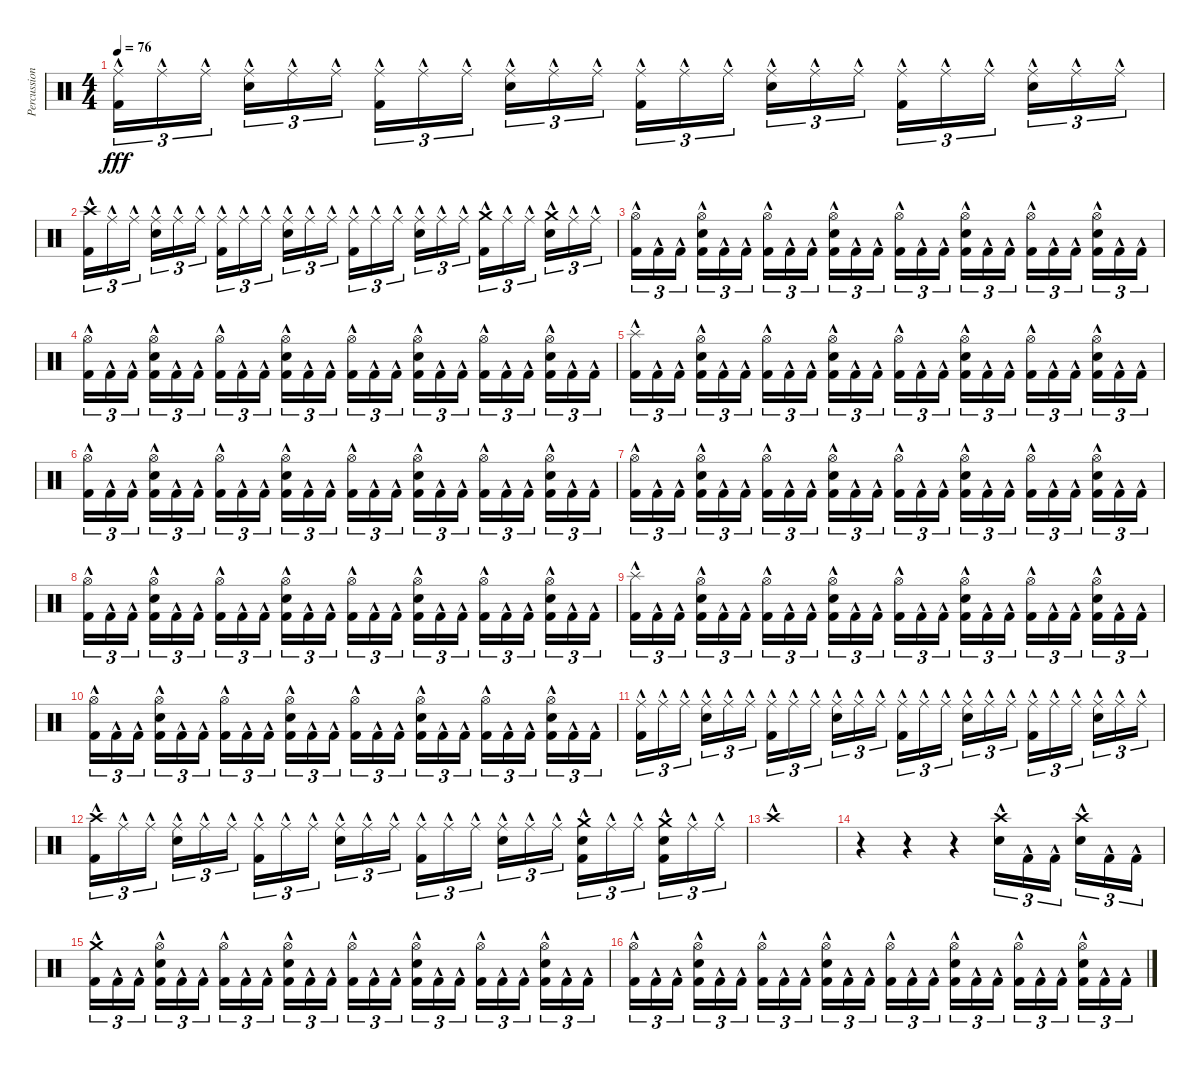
\track ("Percussion" "Percussion") {instrument percussion}
\staff {score}
\articulation defaults
\ts (4 4)
\tempo 76
\clef neutral
\ks c
("Ride (middle)"{hac} "Kick (hit) 2"{hac}).16{tu (3 2) dy fff} "Ride (middle)"{hac}.16{tu (3 2)} "Ride (middle)"{hac}.16{tu (3 2) beam splitsecondary} ("Ride (middle)"{hac} "Electric Snare (hit)"{hac}).16{tu (3 2)} "Ride (middle)"{hac}.16{tu (3 2)} "Ride (middle)"{hac}.16{tu (3 2)} ("Ride (middle)"{hac} "Kick (hit) 2"{hac}).16{tu (3 2)} "Ride (middle)"{hac}.16{tu (3 2)} "Ride (middle)"{hac}.16{tu (3 2) beam splitsecondary} ("Ride (middle)"{hac} "Electric Snare (hit)"{hac}).16{tu (3 2)} "Ride (middle)"{hac}.16{tu (3 2)} "Ride (middle)"{hac}.16{tu (3 2)} ("Ride (middle)"{hac} "Kick (hit) 2"{hac}).16{tu (3 2)} "Ride (middle)"{hac}.16{tu (3 2)} "Ride (middle)"{hac}.16{tu (3 2) beam splitsecondary} ("Ride (middle)"{hac} "Electric Snare (hit)"{hac}).16{tu (3 2)} "Ride (middle)"{hac}.16{tu (3 2)} "Ride (middle)"{hac}.16{tu (3 2)} ("Ride (middle)"{hac} "Kick (hit) 2"{hac}).16{tu (3 2)} "Ride (middle)"{hac}.16{tu (3 2)} "Ride (middle)"{hac}.16{tu (3 2) beam splitsecondary} ("Ride (middle)"{hac} "Electric Snare (hit)"{hac}).16{tu (3 2)} "Ride (middle)"{hac}.16{tu (3 2)} "Ride (middle)"{hac}.16{tu (3 2)} |
("Crash high (hit)"{hac} "Kick (hit) 2"{hac}).16{tu (3 2)} "Ride (middle)"{hac}.16{tu (3 2)} "Ride (middle)"{hac}.16{tu (3 2) beam splitsecondary} ("Ride (middle)"{hac} "Electric Snare (hit)"{hac}).16{tu (3 2)} "Ride (middle)"{hac}.16{tu (3 2)} "Ride (middle)"{hac}.16{tu (3 2)} ("Ride (middle)"{hac} "Kick (hit) 2"{hac}).16{tu (3 2)} "Ride (middle)"{hac}.16{tu (3 2)} "Ride (middle)"{hac}.16{tu (3 2) beam splitsecondary} ("Ride (middle)"{hac} "Electric Snare (hit)"{hac}).16{tu (3 2)} "Ride (middle)"{hac}.16{tu (3 2)} "Ride (middle)"{hac}.16{tu (3 2)} ("Ride (middle)"{hac} "Kick (hit) 2"{hac}).16{tu (3 2)} "Ride (middle)"{hac}.16{tu (3 2)} "Ride (middle)"{hac}.16{tu (3 2) beam splitsecondary} ("Ride (middle)"{hac} "Electric Snare (hit)"{hac}).16{tu (3 2)} "Ride (middle)"{hac}.16{tu (3 2)} "Ride (middle)"{hac}.16{tu (3 2)} ("Crash medium (hit)"{hac} "Kick (hit) 2"{hac}).16{tu (3 2)} "Ride (middle)"{hac}.16{tu (3 2)} "Ride (middle)"{hac}.16{tu (3 2) beam splitsecondary} ("Crash medium (hit)"{hac} "Electric Snare (hit)"{hac}).16{tu (3 2)} "Ride (middle)"{hac}.16{tu (3 2)} "Ride (middle)"{hac}.16{tu (3 2)} |
("Kick (hit) 2"{hac} "Hi-Hat (open)"{hac}).16{tu (3 2)} "Kick (hit) 2"{hac}.16{tu (3 2)} "Kick (hit) 2"{hac}.16{tu (3 2) beam splitsecondary} ("Kick (hit) 2"{hac} "Electric Snare (hit)"{hac} "Hi-Hat (open)"{hac}).16{tu (3 2)} "Kick (hit) 2"{hac}.16{tu (3 2)} "Kick (hit) 2"{hac}.16{tu (3 2)} ("Hi-Hat (open)"{hac} "Kick (hit) 2"{hac}).16{tu (3 2)} "Kick (hit) 2"{hac}.16{tu (3 2)} "Kick (hit) 2"{hac}.16{tu (3 2) beam splitsecondary} ("Kick (hit) 2"{hac} "Electric Snare (hit)"{hac} "Hi-Hat (open)"{hac}).16{tu (3 2)} "Kick (hit) 2"{hac}.16{tu (3 2)} "Kick (hit) 2"{hac}.16{tu (3 2)} ("Kick (hit) 2"{hac} "Hi-Hat (open)"{hac}).16{tu (3 2)} "Kick (hit) 2"{hac}.16{tu (3 2)} "Kick (hit) 2"{hac}.16{tu (3 2) beam splitsecondary} ("Kick (hit) 2"{hac} "Electric Snare (hit)"{hac} "Hi-Hat (open)"{hac}).16{tu (3 2)} "Kick (hit) 2"{hac}.16{tu (3 2)} "Kick (hit) 2"{hac}.16{tu (3 2)} ("Hi-Hat (open)"{hac} "Kick (hit) 2"{hac}).16{tu (3 2)} "Kick (hit) 2"{hac}.16{tu (3 2)} "Kick (hit) 2"{hac}.16{tu (3 2) beam splitsecondary} ("Kick (hit) 2"{hac} "Electric Snare (hit)"{hac} "Hi-Hat (open)"{hac}).16{tu (3 2)} "Kick (hit) 2"{hac}.16{tu (3 2)} "Kick (hit) 2"{hac}.16{tu (3 2)} |
("Kick (hit) 2"{hac} "Hi-Hat (open)"{hac}).16{tu (3 2)} "Kick (hit) 2"{hac}.16{tu (3 2)} "Kick (hit) 2"{hac}.16{tu (3 2) beam splitsecondary} ("Kick (hit) 2"{hac} "Electric Snare (hit)"{hac} "Hi-Hat (open)"{hac}).16{tu (3 2)} "Kick (hit) 2"{hac}.16{tu (3 2)} "Kick (hit) 2"{hac}.16{tu (3 2)} ("Hi-Hat (open)"{hac} "Kick (hit) 2"{hac}).16{tu (3 2)} "Kick (hit) 2"{hac}.16{tu (3 2)} "Kick (hit) 2"{hac}.16{tu (3 2) beam splitsecondary} ("Kick (hit) 2"{hac} "Electric Snare (hit)"{hac} "Hi-Hat (open)"{hac}).16{tu (3 2)} "Kick (hit) 2"{hac}.16{tu (3 2)} "Kick (hit) 2"{hac}.16{tu (3 2)} ("Kick (hit) 2"{hac} "Hi-Hat (open)"{hac}).16{tu (3 2)} "Kick (hit) 2"{hac}.16{tu (3 2)} "Kick (hit) 2"{hac}.16{tu (3 2) beam splitsecondary} ("Kick (hit) 2"{hac} "Electric Snare (hit)"{hac} "Hi-Hat (open)"{hac}).16{tu (3 2)} "Kick (hit) 2"{hac}.16{tu (3 2)} "Kick (hit) 2"{hac}.16{tu (3 2)} ("Hi-Hat (open)"{hac} "Kick (hit) 2"{hac}).16{tu (3 2)} "Kick (hit) 2"{hac}.16{tu (3 2)} "Kick (hit) 2"{hac}.16{tu (3 2) beam splitsecondary} ("Kick (hit) 2"{hac} "Electric Snare (hit)"{hac} "Hi-Hat (open)"{hac}).16{tu (3 2)} "Kick (hit) 2"{hac}.16{tu (3 2)} "Kick (hit) 2"{hac}.16{tu (3 2)} |
("Kick (hit) 2"{hac} "Splash (hit)"{hac}).16{tu (3 2)} "Kick (hit) 2"{hac}.16{tu (3 2)} "Kick (hit) 2"{hac}.16{tu (3 2) beam splitsecondary} ("Kick (hit) 2"{hac} "Electric Snare (hit)"{hac} "Hi-Hat (open)"{hac}).16{tu (3 2)} "Kick (hit) 2"{hac}.16{tu (3 2)} "Kick (hit) 2"{hac}.16{tu (3 2)} ("Hi-Hat (open)"{hac} "Kick (hit) 2"{hac}).16{tu (3 2)} "Kick (hit) 2"{hac}.16{tu (3 2)} "Kick (hit) 2"{hac}.16{tu (3 2) beam splitsecondary} ("Kick (hit) 2"{hac} "Electric Snare (hit)"{hac} "Hi-Hat (open)"{hac}).16{tu (3 2)} "Kick (hit) 2"{hac}.16{tu (3 2)} "Kick (hit) 2"{hac}.16{tu (3 2)} ("Kick (hit) 2"{hac} "Hi-Hat (open)"{hac}).16{tu (3 2)} "Kick (hit) 2"{hac}.16{tu (3 2)} "Kick (hit) 2"{hac}.16{tu (3 2) beam splitsecondary} ("Kick (hit) 2"{hac} "Electric Snare (hit)"{hac} "Hi-Hat (open)"{hac}).16{tu (3 2)} "Kick (hit) 2"{hac}.16{tu (3 2)} "Kick (hit) 2"{hac}.16{tu (3 2)} ("Hi-Hat (open)"{hac} "Kick (hit) 2"{hac}).16{tu (3 2)} "Kick (hit) 2"{hac}.16{tu (3 2)} "Kick (hit) 2"{hac}.16{tu (3 2) beam splitsecondary} ("Kick (hit) 2"{hac} "Electric Snare (hit)"{hac} "Hi-Hat (open)"{hac}).16{tu (3 2)} "Kick (hit) 2"{hac}.16{tu (3 2)} "Kick (hit) 2"{hac}.16{tu (3 2)} |
("Kick (hit) 2"{hac} "Hi-Hat (open)"{hac}).16{tu (3 2)} "Kick (hit) 2"{hac}.16{tu (3 2)} "Kick (hit) 2"{hac}.16{tu (3 2) beam splitsecondary} ("Kick (hit) 2"{hac} "Electric Snare (hit)"{hac} "Hi-Hat (open)"{hac}).16{tu (3 2)} "Kick (hit) 2"{hac}.16{tu (3 2)} "Kick (hit) 2"{hac}.16{tu (3 2)} ("Hi-Hat (open)"{hac} "Kick (hit) 2"{hac}).16{tu (3 2)} "Kick (hit) 2"{hac}.16{tu (3 2)} "Kick (hit) 2"{hac}.16{tu (3 2) beam splitsecondary} ("Kick (hit) 2"{hac} "Electric Snare (hit)"{hac} "Hi-Hat (open)"{hac}).16{tu (3 2)} "Kick (hit) 2"{hac}.16{tu (3 2)} "Kick (hit) 2"{hac}.16{tu (3 2)} ("Kick (hit) 2"{hac} "Hi-Hat (open)"{hac}).16{tu (3 2)} "Kick (hit) 2"{hac}.16{tu (3 2)} "Kick (hit) 2"{hac}.16{tu (3 2) beam splitsecondary} ("Kick (hit) 2"{hac} "Electric Snare (hit)"{hac} "Hi-Hat (open)"{hac}).16{tu (3 2)} "Kick (hit) 2"{hac}.16{tu (3 2)} "Kick (hit) 2"{hac}.16{tu (3 2)} ("Hi-Hat (open)"{hac} "Kick (hit) 2"{hac}).16{tu (3 2)} "Kick (hit) 2"{hac}.16{tu (3 2)} "Kick (hit) 2"{hac}.16{tu (3 2) beam splitsecondary} ("Kick (hit) 2"{hac} "Electric Snare (hit)"{hac} "Hi-Hat (open)"{hac}).16{tu (3 2)} "Kick (hit) 2"{hac}.16{tu (3 2)} "Kick (hit) 2"{hac}.16{tu (3 2)} |
("Kick (hit) 2"{hac} "Hi-Hat (open)"{hac}).16{tu (3 2)} "Kick (hit) 2"{hac}.16{tu (3 2)} "Kick (hit) 2"{hac}.16{tu (3 2) beam splitsecondary} ("Kick (hit) 2"{hac} "Electric Snare (hit)"{hac} "Hi-Hat (open)"{hac}).16{tu (3 2)} "Kick (hit) 2"{hac}.16{tu (3 2)} "Kick (hit) 2"{hac}.16{tu (3 2)} ("Hi-Hat (open)"{hac} "Kick (hit) 2"{hac}).16{tu (3 2)} "Kick (hit) 2"{hac}.16{tu (3 2)} "Kick (hit) 2"{hac}.16{tu (3 2) beam splitsecondary} ("Kick (hit) 2"{hac} "Electric Snare (hit)"{hac} "Hi-Hat (open)"{hac}).16{tu (3 2)} "Kick (hit) 2"{hac}.16{tu (3 2)} "Kick (hit) 2"{hac}.16{tu (3 2)} ("Kick (hit) 2"{hac} "Hi-Hat (open)"{hac}).16{tu (3 2)} "Kick (hit) 2"{hac}.16{tu (3 2)} "Kick (hit) 2"{hac}.16{tu (3 2) beam splitsecondary} ("Kick (hit) 2"{hac} "Electric Snare (hit)"{hac} "Hi-Hat (open)"{hac}).16{tu (3 2)} "Kick (hit) 2"{hac}.16{tu (3 2)} "Kick (hit) 2"{hac}.16{tu (3 2)} ("Hi-Hat (open)"{hac} "Kick (hit) 2"{hac}).16{tu (3 2)} "Kick (hit) 2"{hac}.16{tu (3 2)} "Kick (hit) 2"{hac}.16{tu (3 2) beam splitsecondary} ("Kick (hit) 2"{hac} "Electric Snare (hit)"{hac} "Hi-Hat (open)"{hac}).16{tu (3 2)} "Kick (hit) 2"{hac}.16{tu (3 2)} "Kick (hit) 2"{hac}.16{tu (3 2)} |
("Kick (hit) 2"{hac} "Hi-Hat (open)"{hac}).16{tu (3 2)} "Kick (hit) 2"{hac}.16{tu (3 2)} "Kick (hit) 2"{hac}.16{tu (3 2) beam splitsecondary} ("Kick (hit) 2"{hac} "Electric Snare (hit)"{hac} "Hi-Hat (open)"{hac}).16{tu (3 2)} "Kick (hit) 2"{hac}.16{tu (3 2)} "Kick (hit) 2"{hac}.16{tu (3 2)} ("Hi-Hat (open)"{hac} "Kick (hit) 2"{hac}).16{tu (3 2)} "Kick (hit) 2"{hac}.16{tu (3 2)} "Kick (hit) 2"{hac}.16{tu (3 2) beam splitsecondary} ("Kick (hit) 2"{hac} "Electric Snare (hit)"{hac} "Hi-Hat (open)"{hac}).16{tu (3 2)} "Kick (hit) 2"{hac}.16{tu (3 2)} "Kick (hit) 2"{hac}.16{tu (3 2)} ("Kick (hit) 2"{hac} "Hi-Hat (open)"{hac}).16{tu (3 2)} "Kick (hit) 2"{hac}.16{tu (3 2)} "Kick (hit) 2"{hac}.16{tu (3 2) beam splitsecondary} ("Kick (hit) 2"{hac} "Electric Snare (hit)"{hac} "Hi-Hat (open)"{hac}).16{tu (3 2)} "Kick (hit) 2"{hac}.16{tu (3 2)} "Kick (hit) 2"{hac}.16{tu (3 2)} ("Hi-Hat (open)"{hac} "Kick (hit) 2"{hac}).16{tu (3 2)} "Kick (hit) 2"{hac}.16{tu (3 2)} "Kick (hit) 2"{hac}.16{tu (3 2) beam splitsecondary} ("Kick (hit) 2"{hac} "Electric Snare (hit)"{hac} "Hi-Hat (open)"{hac}).16{tu (3 2)} "Kick (hit) 2"{hac}.16{tu (3 2)} "Kick (hit) 2"{hac}.16{tu (3 2)} |
("Kick (hit) 2"{hac} "Splash (hit)"{hac}).16{tu (3 2)} "Kick (hit) 2"{hac}.16{tu (3 2)} "Kick (hit) 2"{hac}.16{tu (3 2) beam splitsecondary} ("Kick (hit) 2"{hac} "Electric Snare (hit)"{hac} "Hi-Hat (open)"{hac}).16{tu (3 2)} "Kick (hit) 2"{hac}.16{tu (3 2)} "Kick (hit) 2"{hac}.16{tu (3 2)} ("Hi-Hat (open)"{hac} "Kick (hit) 2"{hac}).16{tu (3 2)} "Kick (hit) 2"{hac}.16{tu (3 2)} "Kick (hit) 2"{hac}.16{tu (3 2) beam splitsecondary} ("Kick (hit) 2"{hac} "Electric Snare (hit)"{hac} "Hi-Hat (open)"{hac}).16{tu (3 2)} "Kick (hit) 2"{hac}.16{tu (3 2)} "Kick (hit) 2"{hac}.16{tu (3 2)} ("Kick (hit) 2"{hac} "Hi-Hat (open)"{hac}).16{tu (3 2)} "Kick (hit) 2"{hac}.16{tu (3 2)} "Kick (hit) 2"{hac}.16{tu (3 2) beam splitsecondary} ("Kick (hit) 2"{hac} "Electric Snare (hit)"{hac} "Hi-Hat (open)"{hac}).16{tu (3 2)} "Kick (hit) 2"{hac}.16{tu (3 2)} "Kick (hit) 2"{hac}.16{tu (3 2)} ("Hi-Hat (open)"{hac} "Kick (hit) 2"{hac}).16{tu (3 2)} "Kick (hit) 2"{hac}.16{tu (3 2)} "Kick (hit) 2"{hac}.16{tu (3 2) beam splitsecondary} ("Kick (hit) 2"{hac} "Electric Snare (hit)"{hac} "Hi-Hat (open)"{hac}).16{tu (3 2)} "Kick (hit) 2"{hac}.16{tu (3 2)} "Kick (hit) 2"{hac}.16{tu (3 2)} |
("Kick (hit) 2"{hac} "Hi-Hat (open)"{hac}).16{tu (3 2)} "Kick (hit) 2"{hac}.16{tu (3 2)} "Kick (hit) 2"{hac}.16{tu (3 2) beam splitsecondary} ("Kick (hit) 2"{hac} "Electric Snare (hit)"{hac} "Hi-Hat (open)"{hac}).16{tu (3 2)} "Kick (hit) 2"{hac}.16{tu (3 2)} "Kick (hit) 2"{hac}.16{tu (3 2)} ("Hi-Hat (open)"{hac} "Kick (hit) 2"{hac}).16{tu (3 2)} "Kick (hit) 2"{hac}.16{tu (3 2)} "Kick (hit) 2"{hac}.16{tu (3 2) beam splitsecondary} ("Kick (hit) 2"{hac} "Electric Snare (hit)"{hac} "Hi-Hat (open)"{hac}).16{tu (3 2)} "Kick (hit) 2"{hac}.16{tu (3 2)} "Kick (hit) 2"{hac}.16{tu (3 2)} ("Kick (hit) 2"{hac} "Hi-Hat (open)"{hac}).16{tu (3 2)} "Kick (hit) 2"{hac}.16{tu (3 2)} "Kick (hit) 2"{hac}.16{tu (3 2) beam splitsecondary} ("Kick (hit) 2"{hac} "Electric Snare (hit)"{hac} "Hi-Hat (open)"{hac}).16{tu (3 2)} "Kick (hit) 2"{hac}.16{tu (3 2)} "Kick (hit) 2"{hac}.16{tu (3 2)} ("Hi-Hat (open)"{hac} "Kick (hit) 2"{hac}).16{tu (3 2)} "Kick (hit) 2"{hac}.16{tu (3 2)} "Kick (hit) 2"{hac}.16{tu (3 2) beam splitsecondary} ("Kick (hit) 2"{hac} "Electric Snare (hit)"{hac} "Hi-Hat (open)"{hac}).16{tu (3 2)} "Kick (hit) 2"{hac}.16{tu (3 2)} "Kick (hit) 2"{hac}.16{tu (3 2)} |
("Ride (middle)"{hac} "Kick (hit) 2"{hac}).16{tu (3 2)} "Ride (middle)"{hac}.16{tu (3 2)} "Ride (middle)"{hac}.16{tu (3 2) beam splitsecondary} ("Ride (middle)"{hac} "Electric Snare (hit)"{hac}).16{tu (3 2)} "Ride (middle)"{hac}.16{tu (3 2)} "Ride (middle)"{hac}.16{tu (3 2)} ("Ride (middle)"{hac} "Kick (hit) 2"{hac}).16{tu (3 2)} "Ride (middle)"{hac}.16{tu (3 2)} "Ride (middle)"{hac}.16{tu (3 2) beam splitsecondary} ("Ride (middle)"{hac} "Electric Snare (hit)"{hac}).16{tu (3 2)} "Ride (middle)"{hac}.16{tu (3 2)} "Ride (middle)"{hac}.16{tu (3 2)} ("Ride (middle)"{hac} "Kick (hit) 2"{hac}).16{tu (3 2)} "Ride (middle)"{hac}.16{tu (3 2)} "Ride (middle)"{hac}.16{tu (3 2) beam splitsecondary} ("Ride (middle)"{hac} "Electric Snare (hit)"{hac}).16{tu (3 2)} "Ride (middle)"{hac}.16{tu (3 2)} "Ride (middle)"{hac}.16{tu (3 2)} ("Ride (middle)"{hac} "Kick (hit) 2"{hac}).16{tu (3 2)} "Ride (middle)"{hac}.16{tu (3 2)} "Ride (middle)"{hac}.16{tu (3 2) beam splitsecondary} ("Ride (middle)"{hac} "Electric Snare (hit)"{hac}).16{tu (3 2)} "Ride (middle)"{hac}.16{tu (3 2)} "Ride (middle)"{hac}.16{tu (3 2)} |
("Crash high (hit)"{hac} "Kick (hit) 2"{hac}).16{tu (3 2)} "Ride (middle)"{hac}.16{tu (3 2)} "Ride (middle)"{hac}.16{tu (3 2) beam splitsecondary} ("Ride (middle)"{hac} "Electric Snare (hit)"{hac}).16{tu (3 2)} "Ride (middle)"{hac}.16{tu (3 2)} "Ride (middle)"{hac}.16{tu (3 2)} ("Ride (middle)"{hac} "Kick (hit) 2"{hac}).16{tu (3 2)} "Ride (middle)"{hac}.16{tu (3 2)} "Ride (middle)"{hac}.16{tu (3 2) beam splitsecondary} ("Ride (middle)"{hac} "Electric Snare (hit)"{hac}).16{tu (3 2)} "Ride (middle)"{hac}.16{tu (3 2)} "Ride (middle)"{hac}.16{tu (3 2)} ("Ride (middle)"{hac} "Kick (hit) 2"{hac}).16{tu (3 2)} "Ride (middle)"{hac}.16{tu (3 2)} "Ride (middle)"{hac}.16{tu (3 2) beam splitsecondary} ("Ride (middle)"{hac} "Electric Snare (hit)"{hac}).16{tu (3 2)} "Ride (middle)"{hac}.16{tu (3 2)} "Ride (middle)"{hac}.16{tu (3 2)} ("Crash medium (hit)"{hac} "Electric Snare (hit)"{hac} "Kick (hit) 2"{hac}).16{tu (3 2)} "Ride (middle)"{hac}.16{tu (3 2)} "Ride (middle)"{hac}.16{tu (3 2) beam splitsecondary} ("Crash medium (hit)"{hac} "Electric Snare (hit)"{hac} "Kick (hit) 2"{hac}).16{tu (3 2)} "Ride (middle)"{hac}.16{tu (3 2)} "Ride (middle)"{hac}.16{tu (3 2)} |
"Crash high (hit)"{hac}.1 |
r.4 r.4 r.4 ("Electric Snare (hit)"{hac} "Crash high (hit)"{hac}).16{tu (3 2)} "Kick (hit) 2"{hac}.16{tu (3 2)} "Kick (hit) 2"{hac}.16{tu (3 2) beam splitsecondary} ("Crash high (hit)"{hac} "Electric Snare (hit)"{hac}).16{tu (3 2)} "Kick (hit) 2"{hac}.16{tu (3 2)} "Kick (hit) 2"{hac}.16{tu (3 2)} |
("Kick (hit) 2"{hac} "Crash medium (hit)"{hac}).16{tu (3 2)} "Kick (hit) 2"{hac}.16{tu (3 2)} "Kick (hit) 2"{hac}.16{tu (3 2) beam splitsecondary} ("Kick (hit) 2"{hac} "Electric Snare (hit)"{hac} "Hi-Hat (open)"{hac}).16{tu (3 2)} "Kick (hit) 2"{hac}.16{tu (3 2)} "Kick (hit) 2"{hac}.16{tu (3 2)} ("Hi-Hat (open)"{hac} "Kick (hit) 2"{hac}).16{tu (3 2)} "Kick (hit) 2"{hac}.16{tu (3 2)} "Kick (hit) 2"{hac}.16{tu (3 2) beam splitsecondary} ("Kick (hit) 2"{hac} "Electric Snare (hit)"{hac} "Hi-Hat (open)"{hac}).16{tu (3 2)} "Kick (hit) 2"{hac}.16{tu (3 2)} "Kick (hit) 2"{hac}.16{tu (3 2)} ("Kick (hit) 2"{hac} "Hi-Hat (open)"{hac}).16{tu (3 2)} "Kick (hit) 2"{hac}.16{tu (3 2)} "Kick (hit) 2"{hac}.16{tu (3 2) beam splitsecondary} ("Kick (hit) 2"{hac} "Electric Snare (hit)"{hac} "Hi-Hat (open)"{hac}).16{tu (3 2)} "Kick (hit) 2"{hac}.16{tu (3 2)} "Kick (hit) 2"{hac}.16{tu (3 2)} ("Hi-Hat (open)"{hac} "Kick (hit) 2"{hac}).16{tu (3 2)} "Kick (hit) 2"{hac}.16{tu (3 2)} "Kick (hit) 2"{hac}.16{tu (3 2) beam splitsecondary} ("Kick (hit) 2"{hac} "Electric Snare (hit)"{hac} "Hi-Hat (open)"{hac}).16{tu (3 2)} "Kick (hit) 2"{hac}.16{tu (3 2)} "Kick (hit) 2"{hac}.16{tu (3 2)} |
("Kick (hit) 2"{hac} "Hi-Hat (open)"{hac}).16{tu (3 2)} "Kick (hit) 2"{hac}.16{tu (3 2)} "Kick (hit) 2"{hac}.16{tu (3 2) beam splitsecondary} ("Kick (hit) 2"{hac} "Electric Snare (hit)"{hac} "Hi-Hat (open)"{hac}).16{tu (3 2)} "Kick (hit) 2"{hac}.16{tu (3 2)} "Kick (hit) 2"{hac}.16{tu (3 2)} ("Hi-Hat (open)"{hac} "Kick (hit) 2"{hac}).16{tu (3 2)} "Kick (hit) 2"{hac}.16{tu (3 2)} "Kick (hit) 2"{hac}.16{tu (3 2) beam splitsecondary} ("Kick (hit) 2"{hac} "Electric Snare (hit)"{hac} "Hi-Hat (open)"{hac}).16{tu (3 2)} "Kick (hit) 2"{hac}.16{tu (3 2)} "Kick (hit) 2"{hac}.16{tu (3 2)} ("Kick (hit) 2"{hac} "Hi-Hat (open)"{hac}).16{tu (3 2)} "Kick (hit) 2"{hac}.16{tu (3 2)} "Kick (hit) 2"{hac}.16{tu (3 2) beam splitsecondary} ("Kick (hit) 2"{hac} "Electric Snare (hit)"{hac} "Hi-Hat (open)"{hac}).16{tu (3 2)} "Kick (hit) 2"{hac}.16{tu (3 2)} "Kick (hit) 2"{hac}.16{tu (3 2)} ("Hi-Hat (open)"{hac} "Kick (hit) 2"{hac}).16{tu (3 2)} "Kick (hit) 2"{hac}.16{tu (3 2)} "Kick (hit) 2"{hac}.16{tu (3 2) beam splitsecondary} ("Kick (hit) 2"{hac} "Electric Snare (hit)"{hac} "Hi-Hat (open)"{hac}).16{tu (3 2)} "Kick (hit) 2"{hac}.16{tu (3 2)} "Kick (hit) 2"{hac}.16{tu (3 2)}
